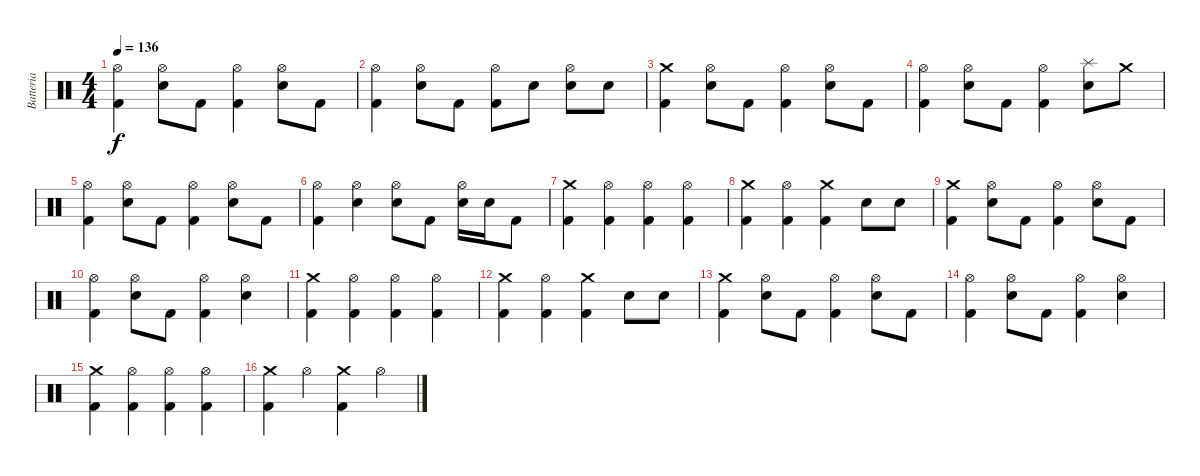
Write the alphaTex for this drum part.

\track ("Batteria" "Batteria") {instrument percussion}
\staff {score}
\articulation defaults
\ts (4 4)
\tempo 136
\clef neutral
\ks c
("Hi-Hat (open)" "Kick (hit) 2").4{dy f} ("Hi-Hat (open)" "Electric Snare (hit)").8 "Kick (hit) 2".8 ("Hi-Hat (open)" "Kick (hit) 2").4 ("Hi-Hat (open)" "Electric Snare (hit)").8 "Kick (hit) 2".8 |
("Hi-Hat (open)" "Kick (hit) 2").4 ("Hi-Hat (open)" "Electric Snare (hit)").8 "Kick (hit) 2".8 ("Hi-Hat (open)" "Kick (hit) 2").8 "Electric Snare (hit)".8 ("Hi-Hat (open)" "Electric Snare (hit)").8 "Electric Snare (hit)".8 |
("Crash medium (hit)" "Kick (hit) 2").4 ("Hi-Hat (open)" "Electric Snare (hit)").8 "Kick (hit) 2".8 ("Hi-Hat (open)" "Kick (hit) 2").4 ("Hi-Hat (open)" "Electric Snare (hit)").8 "Kick (hit) 2".8 |
("Hi-Hat (open)" "Kick (hit) 2").4 ("Hi-Hat (open)" "Electric Snare (hit)").8 "Kick (hit) 2".8 ("Hi-Hat (open)" "Kick (hit) 2").4 ("Splash (hit)" "Electric Snare (hit)").8 "Crash medium (hit)".8 |
("Hi-Hat (open)" "Kick (hit) 2").4 ("Hi-Hat (open)" "Electric Snare (hit)").8 "Kick (hit) 2".8 ("Hi-Hat (open)" "Kick (hit) 2").4 ("Hi-Hat (open)" "Electric Snare (hit)").8 "Kick (hit) 2".8 |
("Hi-Hat (open)" "Kick (hit) 2").4 ("Hi-Hat (open)" "Electric Snare (hit)").4 ("Hi-Hat (open)" "Electric Snare (hit)").8 "Kick (hit) 2".8 ("Hi-Hat (open)" "Electric Snare (hit)").16 "Electric Snare (hit)".16 "Kick (hit) 2".8 |
("Crash medium (hit)" "Kick (hit) 2").4 ("Hi-Hat (open)" "Kick (hit) 2").4 ("Hi-Hat (open)" "Kick (hit) 2").4 ("Hi-Hat (open)" "Kick (hit) 2").4 |
("Crash medium (hit)" "Kick (hit) 2").4 ("Hi-Hat (open)" "Kick (hit) 2").4 ("Crash medium (hit)" "Kick (hit) 2").4 "Electric Snare (hit)".8 "Electric Snare (hit)".8 |
("Crash medium (hit)" "Kick (hit) 2").4 ("Hi-Hat (open)" "Electric Snare (hit)").8 "Kick (hit) 2".8 ("Hi-Hat (open)" "Kick (hit) 2").4 ("Hi-Hat (open)" "Electric Snare (hit)").8 "Kick (hit) 2".8 |
("Hi-Hat (open)" "Kick (hit) 2").4 ("Hi-Hat (open)" "Electric Snare (hit)").8 "Kick (hit) 2".8 ("Hi-Hat (open)" "Kick (hit) 2").4 ("Hi-Hat (open)" "Electric Snare (hit)").4 |
("Crash medium (hit)" "Kick (hit) 2").4 ("Hi-Hat (open)" "Kick (hit) 2").4 ("Hi-Hat (open)" "Kick (hit) 2").4 ("Hi-Hat (open)" "Kick (hit) 2").4 |
("Crash medium (hit)" "Kick (hit) 2").4 ("Hi-Hat (open)" "Kick (hit) 2").4 ("Crash medium (hit)" "Kick (hit) 2").4 "Electric Snare (hit)".8 "Electric Snare (hit)".8 |
("Crash medium (hit)" "Kick (hit) 2").4 ("Hi-Hat (open)" "Electric Snare (hit)").8 "Kick (hit) 2".8 ("Hi-Hat (open)" "Kick (hit) 2").4 ("Hi-Hat (open)" "Electric Snare (hit)").8 "Kick (hit) 2".8 |
("Hi-Hat (open)" "Kick (hit) 2").4 ("Hi-Hat (open)" "Electric Snare (hit)").8 "Kick (hit) 2".8 ("Hi-Hat (open)" "Kick (hit) 2").4 ("Hi-Hat (open)" "Electric Snare (hit)").4 |
("Crash medium (hit)" "Kick (hit) 2").4 ("Hi-Hat (open)" "Kick (hit) 2").4 ("Hi-Hat (open)" "Kick (hit) 2").4 ("Hi-Hat (open)" "Kick (hit) 2").4 |
("Crash medium (hit)" "Kick (hit) 2").4 "Hi-Hat (open)".4 ("Crash medium (hit)" "Kick (hit) 2").4 "Hi-Hat (open)".4
